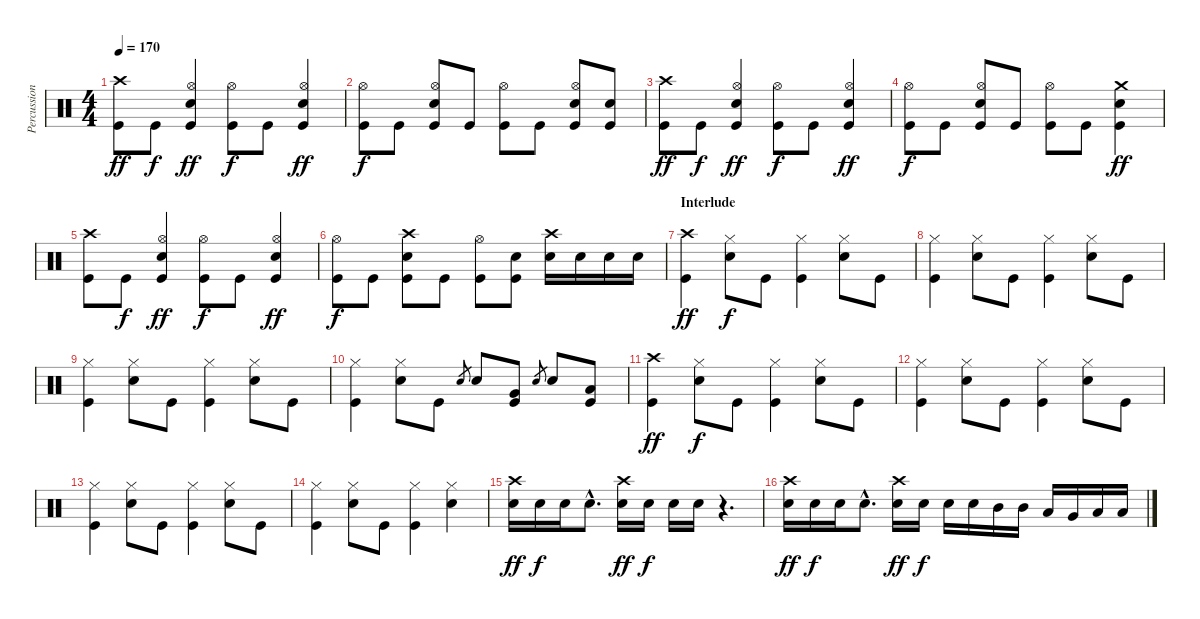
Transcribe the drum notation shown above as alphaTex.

\track ("Percussion" "Percussion") {instrument percussion}
\staff {score}
\articulation defaults
\ts (4 4)
\tempo 170
\clef neutral
\ks c
("Crash high (hit)" "Kick (hit)").8{dy ff} "Kick (hit)".8{dy f} ("Hi-Hat (open)" "Snare (hit) 2" "Kick (hit)").4{dy ff} ("Hi-Hat (open)" "Kick (hit)").8{dy f} "Kick (hit)".8 ("Hi-Hat (open)" "Snare (hit) 2" "Kick (hit)").4{dy ff} |
("Hi-Hat (open)" "Kick (hit)").8{dy f} "Kick (hit)".8 ("Hi-Hat (open)" "Snare (hit) 2" "Kick (hit)").8 "Kick (hit)".8 ("Hi-Hat (open)" "Kick (hit)").8 "Kick (hit)".8 ("Hi-Hat (open)" "Snare (hit) 2" "Kick (hit)").8 ("Snare (hit) 2" "Kick (hit)").8 |
("Crash high (hit)" "Kick (hit)").8{dy ff} "Kick (hit)".8{dy f} ("Hi-Hat (open)" "Snare (hit) 2" "Kick (hit)").4{dy ff} ("Hi-Hat (open)" "Kick (hit)").8{dy f} "Kick (hit)".8 ("Hi-Hat (open)" "Snare (hit) 2" "Kick (hit)").4{dy ff} |
("Hi-Hat (open)" "Kick (hit)").8{dy f} "Kick (hit)".8 ("Hi-Hat (open)" "Snare (hit) 2" "Kick (hit)").8 "Kick (hit)".8 ("Hi-Hat (open)" "Kick (hit)").8 "Kick (hit)".8 ("Crash medium (hit)" "Snare (hit) 2" "Kick (hit)").4{dy ff} |
("Crash high (hit)" "Kick (hit)").8 "Kick (hit)".8{dy f} ("Hi-Hat (open)" "Snare (hit) 2" "Kick (hit)").4{dy ff} ("Hi-Hat (open)" "Kick (hit)").8{dy f} "Kick (hit)".8 ("Hi-Hat (open)" "Snare (hit) 2" "Kick (hit)").4{dy ff} |
("Hi-Hat (open)" "Kick (hit)").8{dy f} "Kick (hit)".8 ("Crash high (hit)" "Snare (hit) 2" "Kick (hit)").8 "Kick (hit)".8 ("Hi-Hat (open)" "Kick (hit)").8 ("Snare (hit) 2" "Kick (hit)").8 ("Crash high (hit)" "Snare (hit) 2").16 "Snare (hit) 2".16 "Snare (hit) 2".16 "Snare (hit) 2".16 |
\section ("" "Interlude")
("Crash high (hit)" "Kick (hit)").4{dy ff} ("Hi-Hat (closed)" "Snare (hit) 2").8{dy f} "Kick (hit)".8 ("Hi-Hat (closed)" "Kick (hit)").4 ("Hi-Hat (closed)" "Snare (hit) 2").8 "Kick (hit)".8 |
("Hi-Hat (closed)" "Kick (hit)").4 ("Hi-Hat (closed)" "Snare (hit) 2").8 "Kick (hit)".8 ("Hi-Hat (closed)" "Kick (hit)").4 ("Hi-Hat (closed)" "Snare (hit) 2").8 "Kick (hit)".8 |
("Hi-Hat (closed)" "Kick (hit)").4 ("Hi-Hat (closed)" "Snare (hit) 2").8 "Kick (hit)".8 ("Hi-Hat (closed)" "Kick (hit)").4 ("Hi-Hat (closed)" "Snare (hit) 2").8 "Kick (hit)".8 |
("Hi-Hat (closed)" "Kick (hit)").4 ("Hi-Hat (closed)" "Snare (hit) 2").8 "Kick (hit)".8 "Snare (hit) 2".8{gr} "Snare (hit) 2".8 ("Very Low Tom (hit)" "Kick (hit)").8 "Snare (hit) 2".8{gr} "Snare (hit) 2".8 ("Low Floor Tom (hit)" "Kick (hit)").8 |
("Crash high (hit)" "Kick (hit)").4{dy ff} ("Hi-Hat (closed)" "Snare (hit) 2").8{dy f} "Kick (hit)".8 ("Hi-Hat (closed)" "Kick (hit)").4 ("Hi-Hat (closed)" "Snare (hit) 2").8 "Kick (hit)".8 |
("Hi-Hat (closed)" "Kick (hit)").4 ("Hi-Hat (closed)" "Snare (hit) 2").8 "Kick (hit)".8 ("Hi-Hat (closed)" "Kick (hit)").4 ("Hi-Hat (closed)" "Snare (hit) 2").8 "Kick (hit)".8 |
("Hi-Hat (closed)" "Kick (hit)").4 ("Hi-Hat (closed)" "Snare (hit) 2").8 "Kick (hit)".8 ("Hi-Hat (closed)" "Kick (hit)").4 ("Hi-Hat (closed)" "Snare (hit) 2").8 "Kick (hit)".8 |
("Hi-Hat (closed)" "Kick (hit)").4 ("Hi-Hat (closed)" "Snare (hit) 2").8 "Kick (hit)".8 ("Hi-Hat (closed)" "Kick (hit)").4 ("Hi-Hat (closed)" "Snare (hit) 2").4 |
("Crash high (hit)" "Snare (hit) 2").16{dy ff} "Snare (hit) 2".16{dy f} "Snare (hit) 2".16 "Snare (hit) 2"{hac}.8{d} ("Crash high (hit)" "Snare (hit) 2").16{dy ff} "Snare (hit) 2".16{dy f} "Snare (hit) 2".16 "Snare (hit) 2".16 r.4{d} |
("Crash high (hit)" "Snare (hit) 2").16{dy ff} "Snare (hit) 2".16{dy f} "Snare (hit) 2".16 "Snare (hit) 2"{hac}.8{d} ("Crash high (hit)" "Snare (hit) 2").16{dy ff} "Snare (hit) 2".16{dy f} "Snare (hit) 2".16 "Snare (hit) 2".16 "Mid Tom (hit)".16 "Mid Tom (hit)".16 "Low Tom (hit)".16 "Very Low Tom (hit)".16 "Low Floor Tom (hit)".16 "Low Floor Tom (hit)".16
